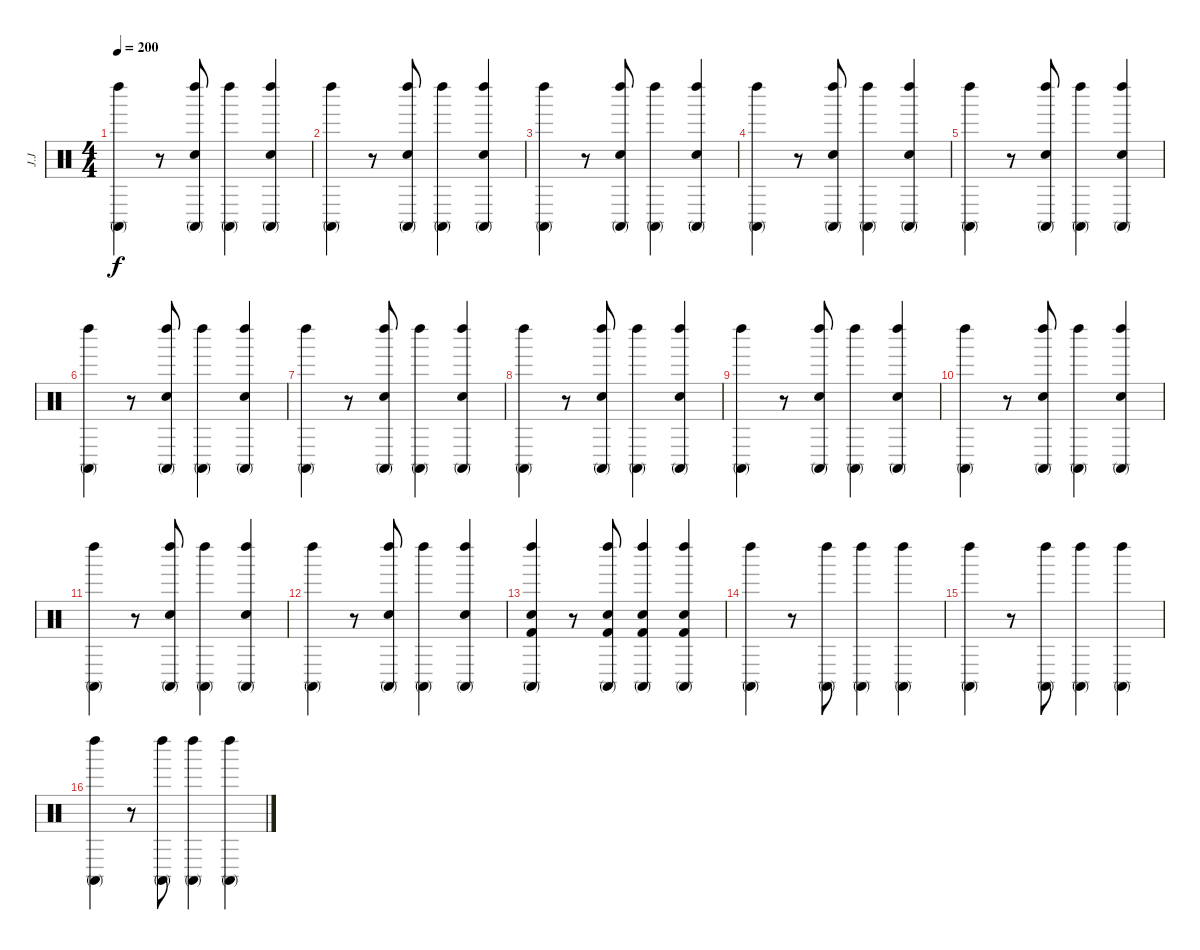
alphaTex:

\track ("J.J" "J.J") {instrument percussion}
\staff {score}
\articulation defaults
\ts (4 4)
\tempo 200
\clef neutral
\ks c
("Conga high (mute)" "Left Maraca (hit)").4{dy f} r.8 ("Conga high (mute)" "Left Maraca (hit)" "Snare (hit) 2").8 ("Conga high (mute)" "Left Maraca (hit)").4 ("Conga high (mute)" "Left Maraca (hit)" "Snare (hit) 2").4 |
("Conga high (mute)" "Left Maraca (hit)").4 r.8 ("Conga high (mute)" "Left Maraca (hit)" "Snare (hit) 2").8 ("Conga high (mute)" "Left Maraca (hit)").4 ("Conga high (mute)" "Left Maraca (hit)" "Snare (hit) 2").4 |
("Conga high (mute)" "Left Maraca (hit)").4 r.8 ("Conga high (mute)" "Left Maraca (hit)" "Snare (hit) 2").8 ("Conga high (mute)" "Left Maraca (hit)").4 ("Conga high (mute)" "Left Maraca (hit)" "Snare (hit) 2").4 |
("Conga high (mute)" "Left Maraca (hit)").4 r.8 ("Conga high (mute)" "Left Maraca (hit)" "Snare (hit) 2").8 ("Conga high (mute)" "Left Maraca (hit)").4 ("Conga high (mute)" "Left Maraca (hit)" "Snare (hit) 2").4 |
("Conga high (mute)" "Left Maraca (hit)").4 r.8 ("Conga high (mute)" "Left Maraca (hit)" "Snare (hit) 2").8 ("Conga high (mute)" "Left Maraca (hit)").4 ("Conga high (mute)" "Left Maraca (hit)" "Snare (hit) 2").4 |
("Conga high (mute)" "Left Maraca (hit)").4 r.8 ("Conga high (mute)" "Left Maraca (hit)" "Snare (hit) 2").8 ("Conga high (mute)" "Left Maraca (hit)").4 ("Conga high (mute)" "Left Maraca (hit)" "Snare (hit) 2").4 |
("Conga high (mute)" "Left Maraca (hit)").4 r.8 ("Conga high (mute)" "Left Maraca (hit)" "Snare (hit) 2").8 ("Conga high (mute)" "Left Maraca (hit)").4 ("Conga high (mute)" "Left Maraca (hit)" "Snare (hit) 2").4 |
("Conga high (mute)" "Left Maraca (hit)").4 r.8 ("Conga high (mute)" "Left Maraca (hit)" "Snare (hit) 2").8 ("Conga high (mute)" "Left Maraca (hit)").4 ("Conga high (mute)" "Left Maraca (hit)" "Snare (hit) 2").4 |
("Conga high (mute)" "Left Maraca (hit)").4 r.8 ("Conga high (mute)" "Left Maraca (hit)" "Snare (hit) 2").8 ("Conga high (mute)" "Left Maraca (hit)").4 ("Conga high (mute)" "Left Maraca (hit)" "Snare (hit) 2").4 |
("Conga high (mute)" "Left Maraca (hit)").4 r.8 ("Conga high (mute)" "Left Maraca (hit)" "Snare (hit) 2").8 ("Conga high (mute)" "Left Maraca (hit)").4 ("Conga high (mute)" "Left Maraca (hit)" "Snare (hit) 2").4 |
("Conga high (mute)" "Left Maraca (hit)").4 r.8 ("Conga high (mute)" "Left Maraca (hit)" "Snare (hit) 2").8 ("Conga high (mute)" "Left Maraca (hit)").4 ("Conga high (mute)" "Left Maraca (hit)" "Snare (hit) 2").4 |
("Conga high (mute)" "Left Maraca (hit)").4 r.8 ("Conga high (mute)" "Left Maraca (hit)" "Snare (hit) 2").8 ("Conga high (mute)" "Left Maraca (hit)").4 ("Conga high (mute)" "Left Maraca (hit)" "Snare (hit) 2").4 |
("Conga high (mute)" "Left Maraca (hit)" "Snare (hit) 2" "Kick (hit) 2").4 r.8 ("Conga high (mute)" "Left Maraca (hit)" "Kick (hit) 2" "Snare (hit) 2").8 ("Conga high (mute)" "Left Maraca (hit)" "Kick (hit) 2" "Snare (hit) 2").4 ("Conga high (mute)" "Left Maraca (hit)" "Kick (hit) 2" "Snare (hit) 2").4 |
("Conga high (mute)" "Left Maraca (hit)").4 r.8 ("Conga high (mute)" "Left Maraca (hit)").8 ("Conga high (mute)" "Left Maraca (hit)").4 ("Conga high (mute)" "Left Maraca (hit)").4 |
("Conga high (mute)" "Left Maraca (hit)").4 r.8 ("Conga high (mute)" "Left Maraca (hit)").8 ("Conga high (mute)" "Left Maraca (hit)").4 ("Conga high (mute)" "Left Maraca (hit)").4 |
("Conga high (mute)" "Left Maraca (hit)").4 r.8 ("Conga high (mute)" "Left Maraca (hit)").8 ("Conga high (mute)" "Left Maraca (hit)").4 ("Conga high (mute)" "Left Maraca (hit)").4
